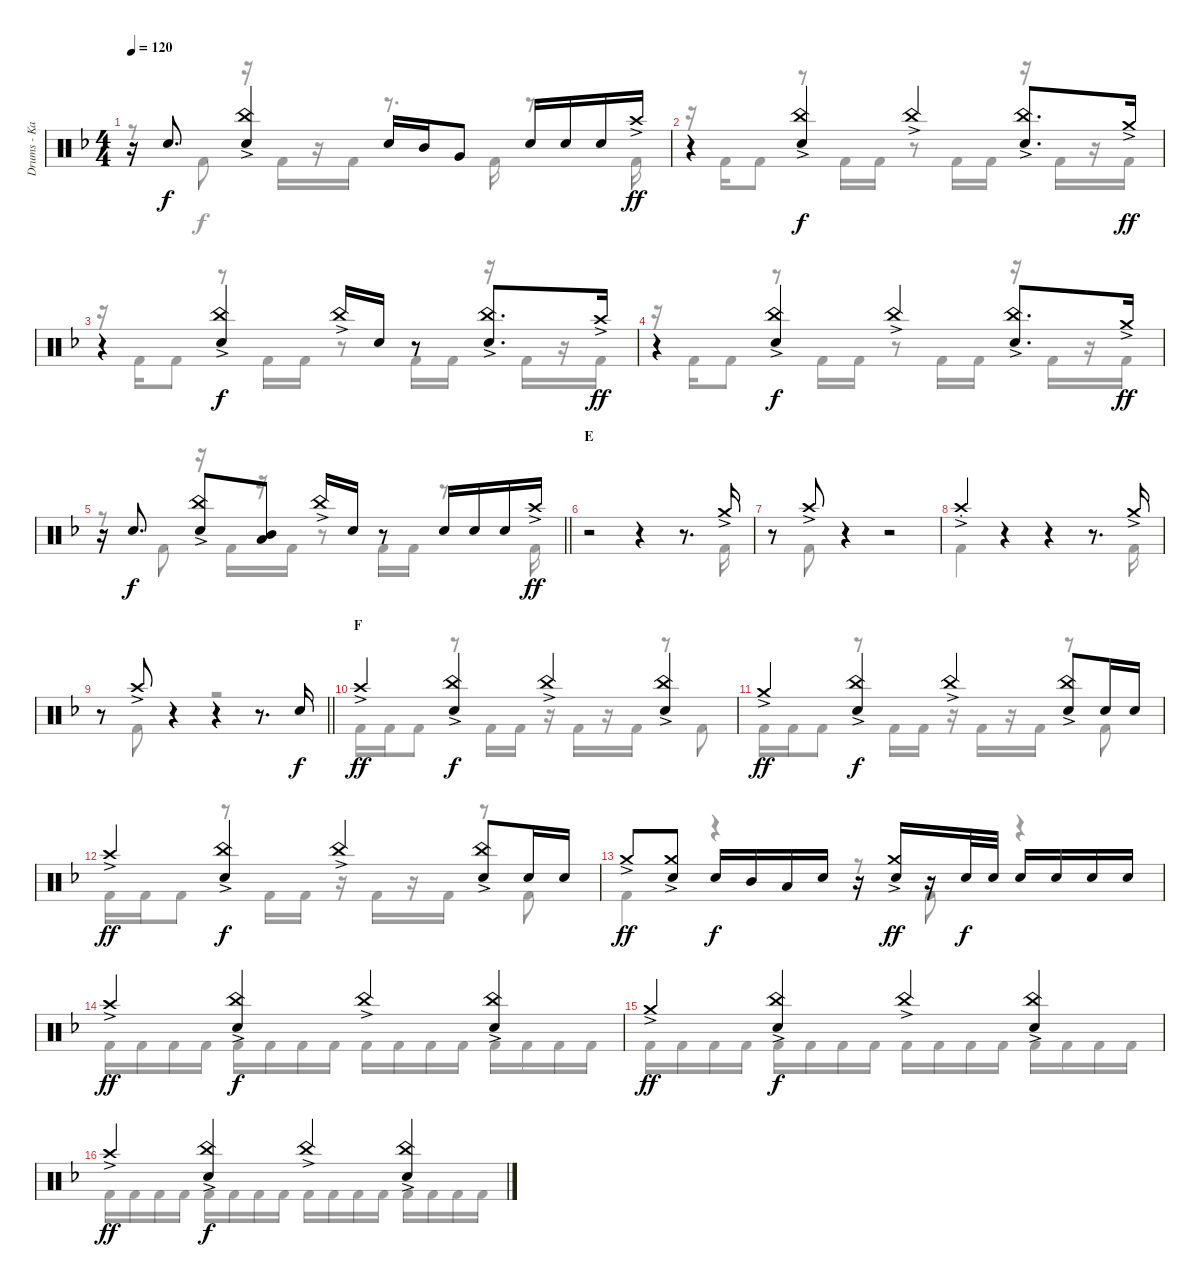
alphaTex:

\track ("Drums - Kai" "Drums - Ka") {instrument percussion}
\staff {score}
\articulation defaults
\voice
\ts (4 4)
\tempo 120
\clef neutral
\ks f
r.16{dy ff} "Electric Snare (hit)".8{d dy f} ("China (hit)"{ac} "Electric Snare (hit)").4 "Electric Snare (hit)".16 "Mid Tom (hit)".16 "Very Low Tom (hit)".8 "Electric Snare (hit)".16 "Electric Snare (hit)".16 "Electric Snare (hit)".16 "Crash high (hit)"{ac}.16{dy ff} |
r.4 ("China (hit)"{ac} "Electric Snare (hit)").4{dy f} "China (hit)"{ac}.4 ("China (hit)"{ac} "Electric Snare (hit)").8{d} "Crash medium (hit)"{ac}.16{dy ff} |
r.4 ("China (hit)"{ac} "Electric Snare (hit)").4{dy f} "China (hit)"{ac}.16 "Electric Snare (hit)".16 r.8 ("China (hit)"{ac} "Electric Snare (hit)").8{d} "Crash high (hit)"{ac}.16{dy ff} |
r.4 ("China (hit)"{ac} "Electric Snare (hit)").4{dy f} "China (hit)"{ac}.4 ("China (hit)"{ac} "Electric Snare (hit)").8{d} "Crash medium (hit)"{ac}.16{dy ff} |
\barLineRight lightlight
r.16 "Electric Snare (hit)".8{d dy f} ("China (hit)"{ac} "Electric Snare (hit)").8 ("Mid Tom (hit)" "Low Tom (hit)").8 "China (hit)"{ac}.16 "Electric Snare (hit)".16 r.8 "Electric Snare (hit)".16 "Electric Snare (hit)".16 "Electric Snare (hit)".16 "Crash high (hit)"{ac}.16{dy ff} |
\section ("" "E")
r.2 r.4 r.8{d} "Crash medium (hit)"{ac}.16 |
r.8 "Crash high (hit)"{ac}.8 r.4 r.2 |
"Crash high (hit)"{ac st}.4 r.4 r.4 r.8{d} "Crash medium (hit)"{ac}.16 |
\barLineRight lightlight
r.8 "Crash high (hit)"{ac}.8 r.4 r.4 r.8{d} "Electric Snare (hit)".16{dy f} |
\section ("" "F")
"Crash high (hit)"{ac}.4{dy ff} ("China (hit)"{ac} "Electric Snare (hit)").4{dy f} "China (hit)"{ac}.4 ("China (hit)"{ac} "Electric Snare (hit)").4 |
"Crash medium (hit)"{ac}.4{dy ff} ("China (hit)"{ac} "Electric Snare (hit)").4{dy f} "China (hit)"{ac}.4 ("China (hit)"{ac} "Electric Snare (hit)").8 "Electric Snare (hit)".16 "Electric Snare (hit)".16 |
"Crash high (hit)"{ac}.4{dy ff} ("China (hit)"{ac} "Electric Snare (hit)").4{dy f} "China (hit)"{ac}.4 ("China (hit)"{ac} "Electric Snare (hit)").8 "Electric Snare (hit)".16 "Electric Snare (hit)".16 |
"Crash medium (hit)"{ac}.8{dy ff} ("Crash medium (hit)"{ac} "Electric Snare (hit)").8 "Electric Snare (hit)".16{dy f} "Mid Tom (hit)".16 "Low Tom (hit)".16 "Electric Snare (hit)".16 r.16 ("Crash medium (hit)"{ac} "Electric Snare (hit)").16{dy ff} r.16 "Electric Snare (hit)".32{dy f} "Electric Snare (hit)".32 "Electric Snare (hit)".16 "Electric Snare (hit)".16 "Electric Snare (hit)".16 "Electric Snare (hit)".16 |
"Crash high (hit)"{ac}.4{dy ff} ("China (hit)"{ac} "Electric Snare (hit)").4{dy f} "China (hit)"{ac}.4 ("China (hit)"{ac} "Electric Snare (hit)").4 |
"Crash medium (hit)"{ac}.4{dy ff} ("China (hit)"{ac} "Electric Snare (hit)").4{dy f} "China (hit)"{ac}.4 ("China (hit)"{ac} "Electric Snare (hit)").4 |
"Crash high (hit)"{ac}.4{dy ff} ("China (hit)"{ac} "Electric Snare (hit)").4{dy f} "China (hit)"{ac}.4 ("China (hit)"{ac} "Electric Snare (hit)").4
\voice
\clef neutral
\ottava regular
\simile none
\ks f
r.8{dy f} "Kick (hit) 2".8 r.16 "Kick (hit) 2".16 r.16 "Kick (hit) 2".16 r.8{d} "Kick (hit) 2".16 r.8{d} "Kick (hit) 2".16 |
r.16 "Kick (hit) 2".16 "Kick (hit) 2".8 r.8 "Kick (hit) 2".16 "Kick (hit) 2".16 r.8 "Kick (hit) 2".16 "Kick (hit) 2".16 r.16 "Kick (hit) 2".16 r.16 "Kick (hit) 2".16 |
r.16 "Kick (hit) 2".16 "Kick (hit) 2".8 r.8 "Kick (hit) 2".16 "Kick (hit) 2".16 r.8 "Kick (hit) 2".16 "Kick (hit) 2".16 r.16 "Kick (hit) 2".16 r.16 "Kick (hit) 2".16 |
r.16 "Kick (hit) 2".16 "Kick (hit) 2".8 r.8 "Kick (hit) 2".16 "Kick (hit) 2".16 r.8 "Kick (hit) 2".16 "Kick (hit) 2".16 r.16 "Kick (hit) 2".16 r.16 "Kick (hit) 2".16 |
\barLineRight lightlight
r.8 "Kick (hit) 2".8 r.16 "Kick (hit) 2".16 r.16 "Kick (hit) 2".16 r.8 "Kick (hit) 2".16 "Kick (hit) 2".16 r.8{d} "Kick (hit) 2".16 |
r.2 r.4 r.8{d} "Kick (hit) 2".16 |
r.8 "Kick (hit) 2".8 r.4 r.2 |
"Kick (hit) 2".4 r.4 r.4 r.8{d} "Kick (hit) 2".16 |
\barLineRight lightlight
r.8 "Kick (hit) 2".8 r.4 r.2 |
"Kick (hit) 2".16 "Kick (hit) 2".16 "Kick (hit) 2".8 r.8 "Kick (hit) 2".16 "Kick (hit) 2".16 r.16 "Kick (hit) 2".16 r.16 "Kick (hit) 2".16 r.8 "Kick (hit) 2".8 |
"Kick (hit) 2".16 "Kick (hit) 2".16 "Kick (hit) 2".8 r.8 "Kick (hit) 2".16 "Kick (hit) 2".16 r.16 "Kick (hit) 2".16 r.16 "Kick (hit) 2".16 r.8 "Kick (hit) 2".8 |
"Kick (hit) 2".16 "Kick (hit) 2".16 "Kick (hit) 2".8 r.8 "Kick (hit) 2".16 "Kick (hit) 2".16 r.16 "Kick (hit) 2".16 r.16 "Kick (hit) 2".16 r.8 "Kick (hit) 2".8 |
"Kick (hit) 2".4 r.4 r.8 "Kick (hit) 2".8 r.4 |
"Kick (hit) 2".16 "Kick (hit) 2".16 "Kick (hit) 2".16 "Kick (hit) 2".16 "Kick (hit) 2".16 "Kick (hit) 2".16 "Kick (hit) 2".16 "Kick (hit) 2".16 "Kick (hit) 2".16 "Kick (hit) 2".16 "Kick (hit) 2".16 "Kick (hit) 2".16 "Kick (hit) 2".16 "Kick (hit) 2".16 "Kick (hit) 2".16 "Kick (hit) 2".16 |
"Kick (hit) 2".16 "Kick (hit) 2".16 "Kick (hit) 2".16 "Kick (hit) 2".16 "Kick (hit) 2".16 "Kick (hit) 2".16 "Kick (hit) 2".16 "Kick (hit) 2".16 "Kick (hit) 2".16 "Kick (hit) 2".16 "Kick (hit) 2".16 "Kick (hit) 2".16 "Kick (hit) 2".16 "Kick (hit) 2".16 "Kick (hit) 2".16 "Kick (hit) 2".16 |
"Kick (hit) 2".16 "Kick (hit) 2".16 "Kick (hit) 2".16 "Kick (hit) 2".16 "Kick (hit) 2".16 "Kick (hit) 2".16 "Kick (hit) 2".16 "Kick (hit) 2".16 "Kick (hit) 2".16 "Kick (hit) 2".16 "Kick (hit) 2".16 "Kick (hit) 2".16 "Kick (hit) 2".16 "Kick (hit) 2".16 "Kick (hit) 2".16 "Kick (hit) 2".16
